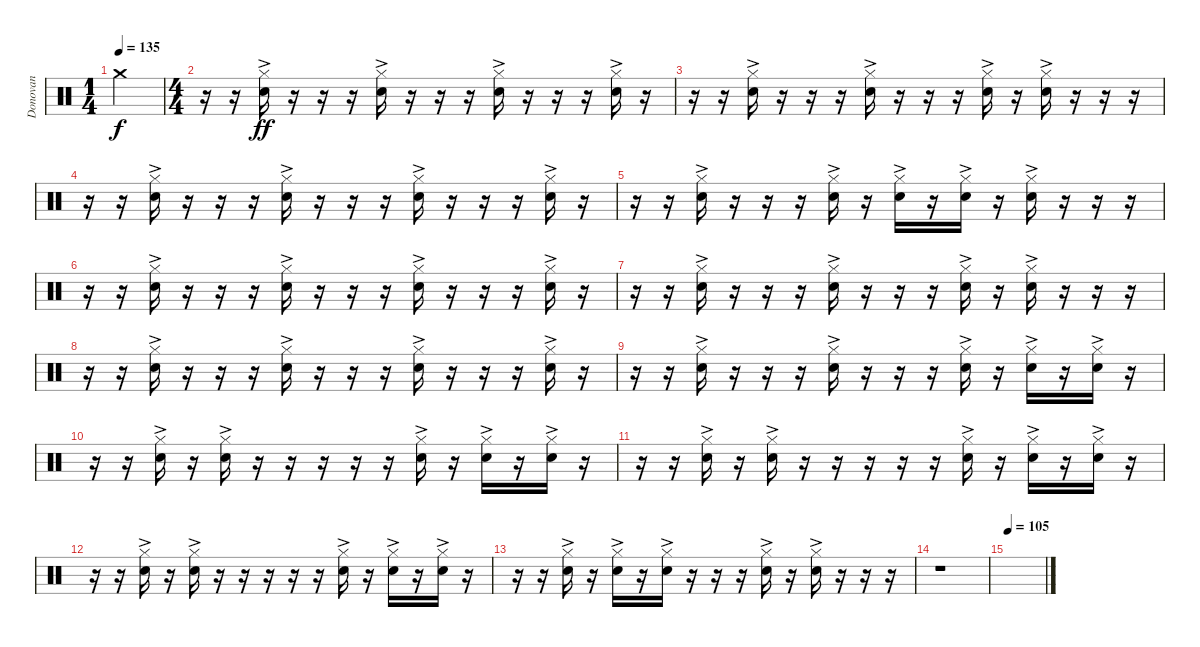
\track ("Donovan" "Donovan") {instrument percussion}
\staff {score}
\articulation defaults
\ts (1 4)
\tempo 135
\clef neutral
\ks c "Crash medium (hit)".4{dy f}
|
\ts (4 4)
r.16 r.16 ("Hi-Hat (closed)"{ac} "Snare (hit) 2"{ac}).16{dy ff} r.16 r.16 r.16 ("Hi-Hat (closed)"{ac} "Snare (hit) 2"{ac}).16 r.16 r.16 r.16 ("Hi-Hat (closed)"{ac} "Snare (hit) 2"{ac}).16 r.16 r.16 r.16 ("Hi-Hat (closed)"{ac} "Snare (hit) 2"{ac}).16 r.16 |
r.16 r.16 ("Hi-Hat (closed)"{ac} "Snare (hit) 2"{ac}).16 r.16 r.16 r.16 ("Hi-Hat (closed)"{ac} "Snare (hit) 2"{ac}).16 r.16 r.16 r.16 ("Hi-Hat (closed)"{ac} "Snare (hit) 2"{ac}).16 r.16 ("Hi-Hat (closed)"{ac} "Snare (hit) 2"{ac}).16 r.16 r.16 r.16 |
r.16 r.16 ("Hi-Hat (closed)"{ac} "Snare (hit) 2"{ac}).16 r.16 r.16 r.16 ("Hi-Hat (closed)"{ac} "Snare (hit) 2"{ac}).16 r.16 r.16 r.16 ("Hi-Hat (closed)"{ac} "Snare (hit) 2"{ac}).16 r.16 r.16 r.16 ("Hi-Hat (closed)"{ac} "Snare (hit) 2"{ac}).16 r.16 |
r.16 r.16 ("Hi-Hat (closed)"{ac} "Snare (hit) 2"{ac}).16 r.16 r.16 r.16 ("Hi-Hat (closed)"{ac} "Snare (hit) 2"{ac}).16 r.16 ("Hi-Hat (closed)"{ac} "Snare (hit) 2"{ac}).16 r.16 ("Hi-Hat (closed)"{ac} "Snare (hit) 2"{ac}).16 r.16 ("Hi-Hat (closed)"{ac} "Snare (hit) 2"{ac}).16 r.16 r.16 r.16 |
r.16 r.16 ("Hi-Hat (closed)"{ac} "Snare (hit) 2"{ac}).16 r.16 r.16 r.16 ("Hi-Hat (closed)"{ac} "Snare (hit) 2"{ac}).16 r.16 r.16 r.16 ("Hi-Hat (closed)"{ac} "Snare (hit) 2"{ac}).16 r.16 r.16 r.16 ("Hi-Hat (closed)"{ac} "Snare (hit) 2"{ac}).16 r.16 |
r.16 r.16 ("Hi-Hat (closed)"{ac} "Snare (hit) 2"{ac}).16 r.16 r.16 r.16 ("Hi-Hat (closed)"{ac} "Snare (hit) 2"{ac}).16 r.16 r.16 r.16 ("Hi-Hat (closed)"{ac} "Snare (hit) 2"{ac}).16 r.16 ("Hi-Hat (closed)"{ac} "Snare (hit) 2"{ac}).16 r.16 r.16 r.16 |
r.16 r.16 ("Hi-Hat (closed)"{ac} "Snare (hit) 2"{ac}).16 r.16 r.16 r.16 ("Hi-Hat (closed)"{ac} "Snare (hit) 2"{ac}).16 r.16 r.16 r.16 ("Hi-Hat (closed)"{ac} "Snare (hit) 2"{ac}).16 r.16 r.16 r.16 ("Hi-Hat (closed)"{ac} "Snare (hit) 2"{ac}).16 r.16 |
r.16 r.16 ("Hi-Hat (closed)"{ac} "Snare (hit) 2"{ac}).16 r.16 r.16 r.16 ("Hi-Hat (closed)"{ac} "Snare (hit) 2"{ac}).16 r.16 r.16 r.16 ("Hi-Hat (closed)"{ac} "Snare (hit) 2"{ac}).16 r.16 ("Hi-Hat (closed)"{ac} "Snare (hit) 2"{ac}).16 r.16 ("Hi-Hat (closed)"{ac} "Snare (hit) 2"{ac}).16 r.16 |
r.16 r.16 ("Hi-Hat (closed)"{ac} "Snare (hit) 2"{ac}).16 r.16 ("Hi-Hat (closed)"{ac} "Snare (hit) 2"{ac}).16 r.16 r.16 r.16 r.16 r.16 ("Hi-Hat (closed)"{ac} "Snare (hit) 2"{ac}).16 r.16 ("Hi-Hat (closed)"{ac} "Snare (hit) 2"{ac}).16 r.16 ("Hi-Hat (closed)"{ac} "Snare (hit) 2"{ac}).16 r.16 |
r.16 r.16 ("Hi-Hat (closed)"{ac} "Snare (hit) 2"{ac}).16 r.16 ("Hi-Hat (closed)"{ac} "Snare (hit) 2"{ac}).16 r.16 r.16 r.16 r.16 r.16 ("Hi-Hat (closed)"{ac} "Snare (hit) 2"{ac}).16 r.16 ("Hi-Hat (closed)"{ac} "Snare (hit) 2"{ac}).16 r.16 ("Hi-Hat (closed)"{ac} "Snare (hit) 2"{ac}).16 r.16 |
r.16 r.16 ("Hi-Hat (closed)"{ac} "Snare (hit) 2"{ac}).16 r.16 ("Hi-Hat (closed)"{ac} "Snare (hit) 2"{ac}).16 r.16 r.16 r.16 r.16 r.16 ("Hi-Hat (closed)"{ac} "Snare (hit) 2"{ac}).16 r.16 ("Hi-Hat (closed)"{ac} "Snare (hit) 2"{ac}).16 r.16 ("Hi-Hat (closed)"{ac} "Snare (hit) 2"{ac}).16 r.16 |
r.16 r.16 ("Hi-Hat (closed)"{ac} "Snare (hit) 2"{ac}).16 r.16 ("Hi-Hat (closed)"{ac} "Snare (hit) 2"{ac}).16 r.16 ("Hi-Hat (closed)"{ac} "Snare (hit) 2"{ac}).16 r.16 r.16 r.16 ("Hi-Hat (closed)"{ac} "Snare (hit) 2"{ac}).16 r.16 ("Hi-Hat (closed)"{ac} "Snare (hit) 2"{ac}).16 r.16 r.16 r.16 |
r.1 |
\tempo 105
